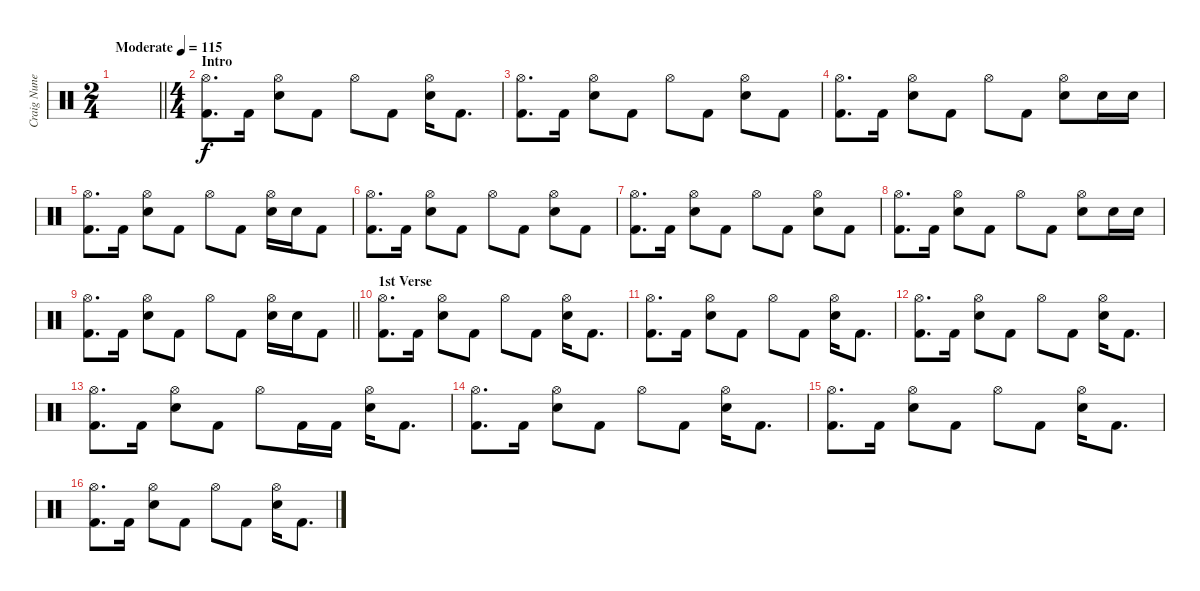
\track ("Craig Nunenmacher" "Craig Nune") {instrument percussion}
\staff {score}
\articulation defaults
\ts (2 4)
\tempo (115 "Moderate")
\clef neutral
\barLineRight lightlight
\ks c
|
\ts (4 4)
\section ("" "Intro")
("Hi-Hat (open)" "Kick (hit) 2").8{d} "Kick (hit) 2".16 ("Hi-Hat (open)" "Snare (hit) 2").8 "Kick (hit) 2".8 "Hi-Hat (open)".8 "Kick (hit) 2".8 ("Hi-Hat (open)" "Snare (hit) 2").16 "Kick (hit) 2".8{d} |
("Hi-Hat (open)" "Kick (hit) 2").8{d} "Kick (hit) 2".16 ("Hi-Hat (open)" "Snare (hit) 2").8 "Kick (hit) 2".8 "Hi-Hat (open)".8 "Kick (hit) 2".8 ("Hi-Hat (open)" "Snare (hit) 2").8 "Kick (hit) 2".8 |
("Hi-Hat (open)" "Kick (hit) 2").8{d} "Kick (hit) 2".16 ("Hi-Hat (open)" "Snare (hit) 2").8 "Kick (hit) 2".8 "Hi-Hat (open)".8 "Kick (hit) 2".8 ("Hi-Hat (open)" "Snare (hit) 2").8 "Snare (hit) 2".16 "Snare (hit) 2".16 |
("Hi-Hat (open)" "Kick (hit) 2").8{d} "Kick (hit) 2".16 ("Hi-Hat (open)" "Snare (hit) 2").8 "Kick (hit) 2".8 "Hi-Hat (open)".8 "Kick (hit) 2".8 ("Hi-Hat (open)" "Snare (hit) 2").16 "Snare (hit) 2".16 "Kick (hit) 2".8 |
("Hi-Hat (open)" "Kick (hit) 2").8{d} "Kick (hit) 2".16 ("Hi-Hat (open)" "Snare (hit) 2").8 "Kick (hit) 2".8 "Hi-Hat (open)".8 "Kick (hit) 2".8 ("Hi-Hat (open)" "Snare (hit) 2").8 "Kick (hit) 2".8 |
("Hi-Hat (open)" "Kick (hit) 2").8{d} "Kick (hit) 2".16 ("Hi-Hat (open)" "Snare (hit) 2").8 "Kick (hit) 2".8 "Hi-Hat (open)".8 "Kick (hit) 2".8 ("Hi-Hat (open)" "Snare (hit) 2").8 "Kick (hit) 2".8 |
("Hi-Hat (open)" "Kick (hit) 2").8{d} "Kick (hit) 2".16 ("Hi-Hat (open)" "Snare (hit) 2").8 "Kick (hit) 2".8 "Hi-Hat (open)".8 "Kick (hit) 2".8 ("Hi-Hat (open)" "Snare (hit) 2").8 "Snare (hit) 2".16 "Snare (hit) 2".16 |
\barLineRight lightlight
("Hi-Hat (open)" "Kick (hit) 2").8{d} "Kick (hit) 2".16 ("Hi-Hat (open)" "Snare (hit) 2").8 "Kick (hit) 2".8 "Hi-Hat (open)".8 "Kick (hit) 2".8 ("Hi-Hat (open)" "Snare (hit) 2").16 "Snare (hit) 2".16 "Kick (hit) 2".8 |
\section ("" "1st Verse")
("Hi-Hat (open)" "Kick (hit) 2").8{d} "Kick (hit) 2".16 ("Hi-Hat (open)" "Snare (hit) 2").8 "Kick (hit) 2".8 "Hi-Hat (open)".8 "Kick (hit) 2".8 ("Hi-Hat (open)" "Snare (hit) 2").16 "Kick (hit) 2".8{d} |
("Hi-Hat (open)" "Kick (hit) 2").8{d} "Kick (hit) 2".16 ("Hi-Hat (open)" "Snare (hit) 2").8 "Kick (hit) 2".8 "Hi-Hat (open)".8 "Kick (hit) 2".8 ("Hi-Hat (open)" "Snare (hit) 2").16 "Kick (hit) 2".8{d} |
("Hi-Hat (open)" "Kick (hit) 2").8{d} "Kick (hit) 2".16 ("Hi-Hat (open)" "Snare (hit) 2").8 "Kick (hit) 2".8 "Hi-Hat (open)".8 "Kick (hit) 2".8 ("Hi-Hat (open)" "Snare (hit) 2").16 "Kick (hit) 2".8{d} |
("Hi-Hat (open)" "Kick (hit) 2").8{d} "Kick (hit) 2".16 ("Hi-Hat (open)" "Snare (hit) 2").8 "Kick (hit) 2".8 "Hi-Hat (open)".8 "Kick (hit) 2".16 "Kick (hit) 2".16 ("Hi-Hat (open)" "Snare (hit) 2").16 "Kick (hit) 2".8{d} |
("Hi-Hat (open)" "Kick (hit) 2").8{d} "Kick (hit) 2".16 ("Hi-Hat (open)" "Snare (hit) 2").8 "Kick (hit) 2".8 "Hi-Hat (open)".8 "Kick (hit) 2".8 ("Hi-Hat (open)" "Snare (hit) 2").16 "Kick (hit) 2".8{d} |
("Hi-Hat (open)" "Kick (hit) 2").8{d} "Kick (hit) 2".16 ("Hi-Hat (open)" "Snare (hit) 2").8 "Kick (hit) 2".8 "Hi-Hat (open)".8 "Kick (hit) 2".8 ("Hi-Hat (open)" "Snare (hit) 2").16 "Kick (hit) 2".8{d} |
("Hi-Hat (open)" "Kick (hit) 2").8{d} "Kick (hit) 2".16 ("Hi-Hat (open)" "Snare (hit) 2").8 "Kick (hit) 2".8 "Hi-Hat (open)".8 "Kick (hit) 2".8 ("Hi-Hat (open)" "Snare (hit) 2").16 "Kick (hit) 2".8{d}
